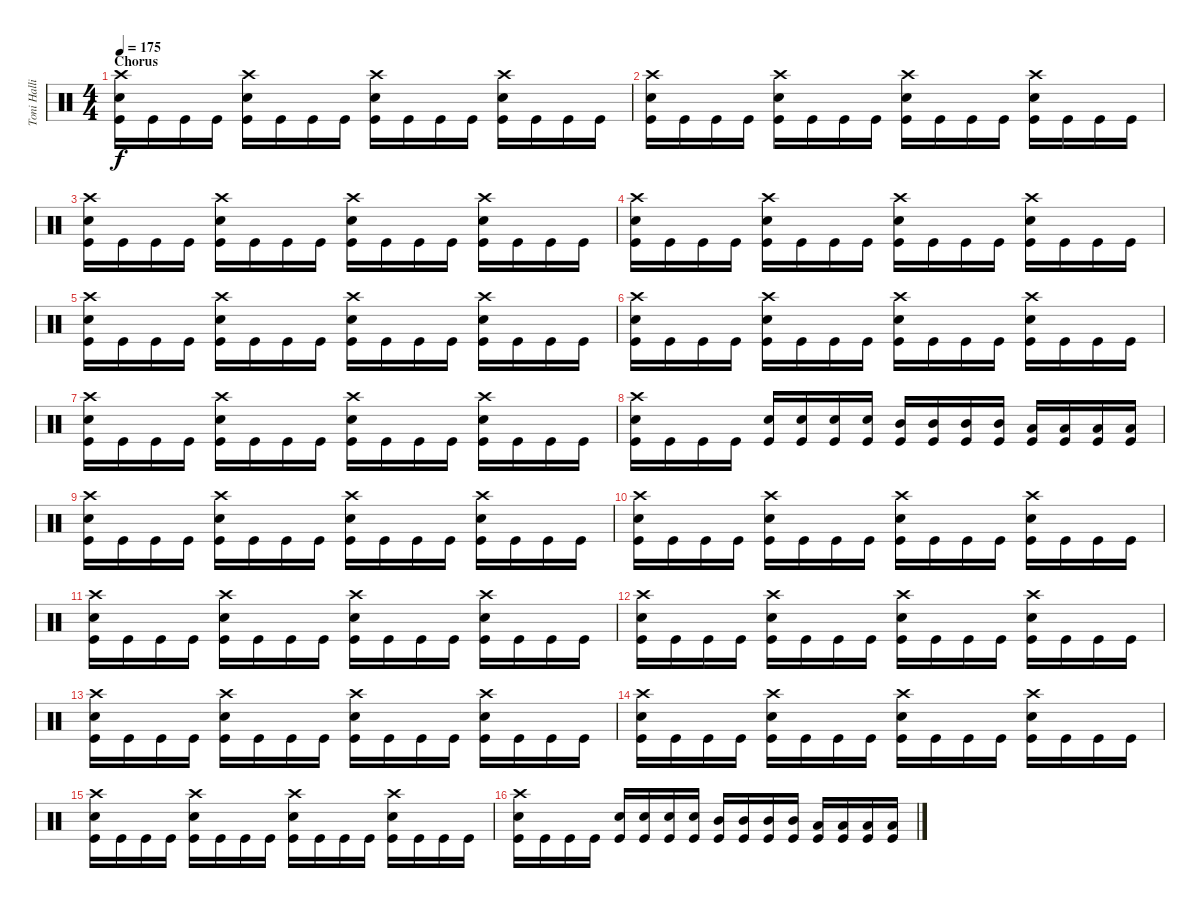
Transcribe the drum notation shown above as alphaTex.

\track ("Toni Hallio" "Toni Halli") {instrument percussion}
\staff {score}
\articulation defaults
\ts (4 4)
\section ("" "Chorus")
\tempo 175
\clef neutral
\ks c
("Crash high (hit)" "Snare (hit) 2" "Kick (hit)").16{dy f} "Kick (hit)".16 "Kick (hit)".16 "Kick (hit)".16 ("Crash high (hit)" "Snare (hit) 2" "Kick (hit)").16 "Kick (hit)".16 "Kick (hit)".16 "Kick (hit)".16 ("Crash high (hit)" "Snare (hit) 2" "Kick (hit)").16 "Kick (hit)".16 "Kick (hit)".16 "Kick (hit)".16 ("Crash high (hit)" "Snare (hit) 2" "Kick (hit)").16 "Kick (hit)".16 "Kick (hit)".16 "Kick (hit)".16 |
("Crash high (hit)" "Snare (hit) 2" "Kick (hit)").16 "Kick (hit)".16 "Kick (hit)".16 "Kick (hit)".16 ("Crash high (hit)" "Snare (hit) 2" "Kick (hit)").16 "Kick (hit)".16 "Kick (hit)".16 "Kick (hit)".16 ("Crash high (hit)" "Snare (hit) 2" "Kick (hit)").16 "Kick (hit)".16 "Kick (hit)".16 "Kick (hit)".16 ("Crash high (hit)" "Snare (hit) 2" "Kick (hit)").16 "Kick (hit)".16 "Kick (hit)".16 "Kick (hit)".16 |
("Crash high (hit)" "Snare (hit) 2" "Kick (hit)").16 "Kick (hit)".16 "Kick (hit)".16 "Kick (hit)".16 ("Crash high (hit)" "Snare (hit) 2" "Kick (hit)").16 "Kick (hit)".16 "Kick (hit)".16 "Kick (hit)".16 ("Crash high (hit)" "Snare (hit) 2" "Kick (hit)").16 "Kick (hit)".16 "Kick (hit)".16 "Kick (hit)".16 ("Crash high (hit)" "Snare (hit) 2" "Kick (hit)").16 "Kick (hit)".16 "Kick (hit)".16 "Kick (hit)".16 |
("Crash high (hit)" "Snare (hit) 2" "Kick (hit)").16 "Kick (hit)".16 "Kick (hit)".16 "Kick (hit)".16 ("Crash high (hit)" "Snare (hit) 2" "Kick (hit)").16 "Kick (hit)".16 "Kick (hit)".16 "Kick (hit)".16 ("Crash high (hit)" "Snare (hit) 2" "Kick (hit)").16 "Kick (hit)".16 "Kick (hit)".16 "Kick (hit)".16 ("Crash high (hit)" "Snare (hit) 2" "Kick (hit)").16 "Kick (hit)".16 "Kick (hit)".16 "Kick (hit)".16 |
("Crash high (hit)" "Snare (hit) 2" "Kick (hit)").16 "Kick (hit)".16 "Kick (hit)".16 "Kick (hit)".16 ("Crash high (hit)" "Snare (hit) 2" "Kick (hit)").16 "Kick (hit)".16 "Kick (hit)".16 "Kick (hit)".16 ("Crash high (hit)" "Snare (hit) 2" "Kick (hit)").16 "Kick (hit)".16 "Kick (hit)".16 "Kick (hit)".16 ("Crash high (hit)" "Snare (hit) 2" "Kick (hit)").16 "Kick (hit)".16 "Kick (hit)".16 "Kick (hit)".16 |
("Crash high (hit)" "Snare (hit) 2" "Kick (hit)").16 "Kick (hit)".16 "Kick (hit)".16 "Kick (hit)".16 ("Crash high (hit)" "Snare (hit) 2" "Kick (hit)").16 "Kick (hit)".16 "Kick (hit)".16 "Kick (hit)".16 ("Crash high (hit)" "Snare (hit) 2" "Kick (hit)").16 "Kick (hit)".16 "Kick (hit)".16 "Kick (hit)".16 ("Crash high (hit)" "Snare (hit) 2" "Kick (hit)").16 "Kick (hit)".16 "Kick (hit)".16 "Kick (hit)".16 |
("Crash high (hit)" "Snare (hit) 2" "Kick (hit)").16 "Kick (hit)".16 "Kick (hit)".16 "Kick (hit)".16 ("Crash high (hit)" "Snare (hit) 2" "Kick (hit)").16 "Kick (hit)".16 "Kick (hit)".16 "Kick (hit)".16 ("Crash high (hit)" "Snare (hit) 2" "Kick (hit)").16 "Kick (hit)".16 "Kick (hit)".16 "Kick (hit)".16 ("Crash high (hit)" "Snare (hit) 2" "Kick (hit)").16 "Kick (hit)".16 "Kick (hit)".16 "Kick (hit)".16 |
("Crash high (hit)" "Snare (hit) 2" "Kick (hit)").16 "Kick (hit)".16 "Kick (hit)".16 "Kick (hit)".16 ("Snare (hit) 2" "Kick (hit)").16 ("Snare (hit) 2" "Kick (hit)").16 ("Snare (hit) 2" "Kick (hit)").16 ("Snare (hit) 2" "Kick (hit)").16 ("Mid Tom (hit)" "Kick (hit)").16 ("Mid Tom (hit)" "Kick (hit)").16 ("Mid Tom (hit)" "Kick (hit)").16 ("Mid Tom (hit)" "Kick (hit)").16 ("Low Tom (hit)" "Kick (hit)").16 ("Low Tom (hit)" "Kick (hit)").16 ("Low Tom (hit)" "Kick (hit)").16 ("Low Tom (hit)" "Kick (hit)").16 |
("Crash high (hit)" "Snare (hit) 2" "Kick (hit)").16 "Kick (hit)".16 "Kick (hit)".16 "Kick (hit)".16 ("Crash high (hit)" "Snare (hit) 2" "Kick (hit)").16 "Kick (hit)".16 "Kick (hit)".16 "Kick (hit)".16 ("Crash high (hit)" "Snare (hit) 2" "Kick (hit)").16 "Kick (hit)".16 "Kick (hit)".16 "Kick (hit)".16 ("Crash high (hit)" "Snare (hit) 2" "Kick (hit)").16 "Kick (hit)".16 "Kick (hit)".16 "Kick (hit)".16 |
("Crash high (hit)" "Snare (hit) 2" "Kick (hit)").16 "Kick (hit)".16 "Kick (hit)".16 "Kick (hit)".16 ("Crash high (hit)" "Snare (hit) 2" "Kick (hit)").16 "Kick (hit)".16 "Kick (hit)".16 "Kick (hit)".16 ("Crash high (hit)" "Snare (hit) 2" "Kick (hit)").16 "Kick (hit)".16 "Kick (hit)".16 "Kick (hit)".16 ("Crash high (hit)" "Snare (hit) 2" "Kick (hit)").16 "Kick (hit)".16 "Kick (hit)".16 "Kick (hit)".16 |
("Crash high (hit)" "Snare (hit) 2" "Kick (hit)").16 "Kick (hit)".16 "Kick (hit)".16 "Kick (hit)".16 ("Crash high (hit)" "Snare (hit) 2" "Kick (hit)").16 "Kick (hit)".16 "Kick (hit)".16 "Kick (hit)".16 ("Crash high (hit)" "Snare (hit) 2" "Kick (hit)").16 "Kick (hit)".16 "Kick (hit)".16 "Kick (hit)".16 ("Crash high (hit)" "Snare (hit) 2" "Kick (hit)").16 "Kick (hit)".16 "Kick (hit)".16 "Kick (hit)".16 |
("Crash high (hit)" "Snare (hit) 2" "Kick (hit)").16 "Kick (hit)".16 "Kick (hit)".16 "Kick (hit)".16 ("Crash high (hit)" "Snare (hit) 2" "Kick (hit)").16 "Kick (hit)".16 "Kick (hit)".16 "Kick (hit)".16 ("Crash high (hit)" "Snare (hit) 2" "Kick (hit)").16 "Kick (hit)".16 "Kick (hit)".16 "Kick (hit)".16 ("Crash high (hit)" "Snare (hit) 2" "Kick (hit)").16 "Kick (hit)".16 "Kick (hit)".16 "Kick (hit)".16 |
("Crash high (hit)" "Snare (hit) 2" "Kick (hit)").16 "Kick (hit)".16 "Kick (hit)".16 "Kick (hit)".16 ("Crash high (hit)" "Snare (hit) 2" "Kick (hit)").16 "Kick (hit)".16 "Kick (hit)".16 "Kick (hit)".16 ("Crash high (hit)" "Snare (hit) 2" "Kick (hit)").16 "Kick (hit)".16 "Kick (hit)".16 "Kick (hit)".16 ("Crash high (hit)" "Snare (hit) 2" "Kick (hit)").16 "Kick (hit)".16 "Kick (hit)".16 "Kick (hit)".16 |
("Crash high (hit)" "Snare (hit) 2" "Kick (hit)").16 "Kick (hit)".16 "Kick (hit)".16 "Kick (hit)".16 ("Crash high (hit)" "Snare (hit) 2" "Kick (hit)").16 "Kick (hit)".16 "Kick (hit)".16 "Kick (hit)".16 ("Crash high (hit)" "Snare (hit) 2" "Kick (hit)").16 "Kick (hit)".16 "Kick (hit)".16 "Kick (hit)".16 ("Crash high (hit)" "Snare (hit) 2" "Kick (hit)").16 "Kick (hit)".16 "Kick (hit)".16 "Kick (hit)".16 |
("Crash high (hit)" "Snare (hit) 2" "Kick (hit)").16 "Kick (hit)".16 "Kick (hit)".16 "Kick (hit)".16 ("Crash high (hit)" "Snare (hit) 2" "Kick (hit)").16 "Kick (hit)".16 "Kick (hit)".16 "Kick (hit)".16 ("Crash high (hit)" "Snare (hit) 2" "Kick (hit)").16 "Kick (hit)".16 "Kick (hit)".16 "Kick (hit)".16 ("Crash high (hit)" "Snare (hit) 2" "Kick (hit)").16 "Kick (hit)".16 "Kick (hit)".16 "Kick (hit)".16 |
("Crash high (hit)" "Snare (hit) 2" "Kick (hit)").16 "Kick (hit)".16 "Kick (hit)".16 "Kick (hit)".16 ("Snare (hit) 2" "Kick (hit)").16 ("Snare (hit) 2" "Kick (hit)").16 ("Snare (hit) 2" "Kick (hit)").16 ("Snare (hit) 2" "Kick (hit)").16 ("Mid Tom (hit)" "Kick (hit)").16 ("Mid Tom (hit)" "Kick (hit)").16 ("Mid Tom (hit)" "Kick (hit)").16 ("Mid Tom (hit)" "Kick (hit)").16 ("Low Tom (hit)" "Kick (hit)").16 ("Low Tom (hit)" "Kick (hit)").16 ("Low Tom (hit)" "Kick (hit)").16 ("Low Tom (hit)" "Kick (hit)").16
